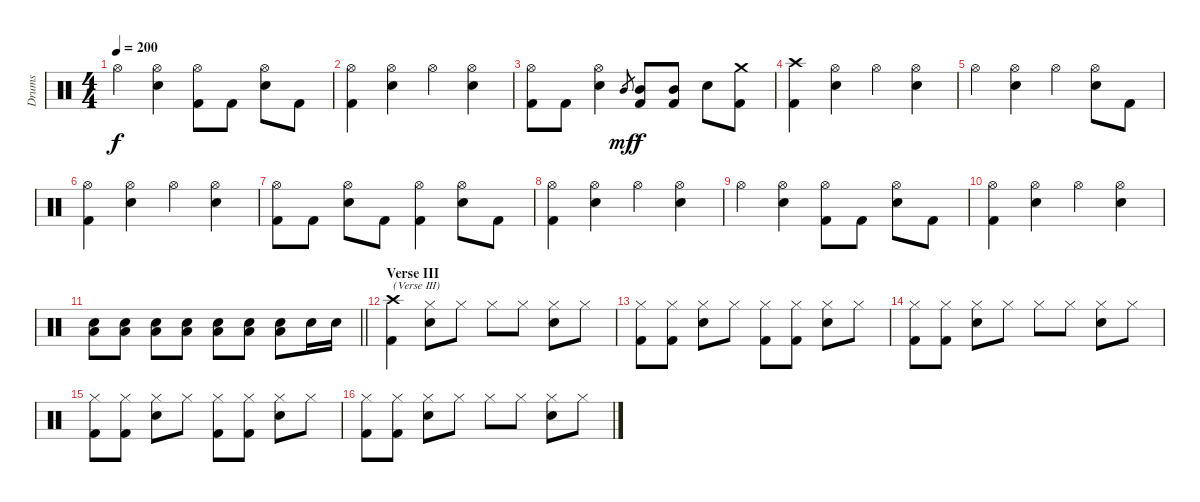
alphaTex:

\track ("Drums" "Drums") {instrument percussion}
\staff {score}
\articulation defaults
\ts (4 4)
\tempo 200
\clef neutral
\ks c "Hi-Hat (open)".4{dy f}
("Hi-Hat (open)" "Electric Snare (hit)").4 ("Hi-Hat (open)" "Kick (hit) 2").8 "Kick (hit) 2".8 ("Hi-Hat (open)" "Electric Snare (hit)").8 "Kick (hit) 2".8 |
("Hi-Hat (open)" "Kick (hit) 2").4 ("Hi-Hat (open)" "Electric Snare (hit)").4 "Hi-Hat (open)".4 ("Hi-Hat (open)" "Electric Snare (hit)").4 |
("Hi-Hat (open)" "Kick (hit) 2").8 "Kick (hit) 2".8 ("Hi-Hat (open)" "Electric Snare (hit)").4 "Mid Tom (hit)".8{gr dy mf} ("Mid Tom (hit)" "Kick (hit) 2").8{dy f} ("Mid Tom (hit)" "Kick (hit) 2").8 "Electric Snare (hit)".8 ("Crash medium (hit)" "Kick (hit) 2").8 |
("Crash high (hit)" "Kick (hit) 2").4 ("Hi-Hat (open)" "Electric Snare (hit)").4 "Hi-Hat (open)".4 ("Hi-Hat (open)" "Electric Snare (hit)").4 |
"Hi-Hat (open)".4 ("Hi-Hat (open)" "Electric Snare (hit)").4 "Hi-Hat (open)".4 ("Hi-Hat (open)" "Electric Snare (hit)").8 "Kick (hit) 2".8 |
("Hi-Hat (open)" "Kick (hit) 2").4 ("Hi-Hat (open)" "Electric Snare (hit)").4 "Hi-Hat (open)".4 ("Hi-Hat (open)" "Electric Snare (hit)").4 |
("Hi-Hat (open)" "Kick (hit) 2").8 "Kick (hit) 2".8 ("Hi-Hat (open)" "Electric Snare (hit)").8 "Kick (hit) 2".8 ("Hi-Hat (open)" "Kick (hit) 2").4 ("Hi-Hat (open)" "Electric Snare (hit)").8 "Kick (hit) 2".8 |
("Hi-Hat (open)" "Kick (hit) 2").4 ("Hi-Hat (open)" "Electric Snare (hit)").4 "Hi-Hat (open)".4 ("Hi-Hat (open)" "Electric Snare (hit)").4 |
"Hi-Hat (open)".4 ("Hi-Hat (open)" "Electric Snare (hit)").4 ("Hi-Hat (open)" "Kick (hit) 2").8 "Kick (hit) 2".8 ("Hi-Hat (open)" "Electric Snare (hit)").8 "Kick (hit) 2".8 |
("Hi-Hat (open)" "Kick (hit) 2").4 ("Hi-Hat (open)" "Electric Snare (hit)").4 "Hi-Hat (open)".4 ("Hi-Hat (open)" "Electric Snare (hit)").4 |
\barLineRight lightlight
("Electric Snare (hit)" "Low Floor Tom (hit)").8 ("Electric Snare (hit)" "Low Floor Tom (hit)").8 ("Electric Snare (hit)" "Low Floor Tom (hit)").8 ("Electric Snare (hit)" "Low Floor Tom (hit)").8 ("Electric Snare (hit)" "Low Floor Tom (hit)").8 ("Electric Snare (hit)" "Low Floor Tom (hit)").8 ("Electric Snare (hit)" "Low Floor Tom (hit)").8 "Electric Snare (hit)".16 "Electric Snare (hit)".16 |
\section ("" "Verse III")
("Crash high (hit)" "Kick (hit) 2").4{txt "(Verse III)"} ("Hi-Hat (closed)" "Electric Snare (hit)").8 "Hi-Hat (closed)".8 "Hi-Hat (closed)".8 "Hi-Hat (closed)".8 ("Hi-Hat (closed)" "Electric Snare (hit)").8 "Hi-Hat (closed)".8 |
("Hi-Hat (closed)" "Kick (hit) 2").8 ("Hi-Hat (closed)" "Kick (hit) 2").8 ("Hi-Hat (closed)" "Electric Snare (hit)").8 "Hi-Hat (closed)".8 ("Hi-Hat (closed)" "Kick (hit) 2").8 ("Hi-Hat (closed)" "Kick (hit) 2").8 ("Hi-Hat (closed)" "Electric Snare (hit)").8 "Hi-Hat (closed)".8 |
("Hi-Hat (closed)" "Kick (hit) 2").8 ("Hi-Hat (closed)" "Kick (hit) 2").8 ("Hi-Hat (closed)" "Electric Snare (hit)").8 "Hi-Hat (closed)".8 "Hi-Hat (closed)".8 "Hi-Hat (closed)".8 ("Hi-Hat (closed)" "Electric Snare (hit)").8 "Hi-Hat (closed)".8 |
("Hi-Hat (closed)" "Kick (hit) 2").8 ("Hi-Hat (closed)" "Kick (hit) 2").8 ("Hi-Hat (closed)" "Electric Snare (hit)").8 "Hi-Hat (closed)".8 ("Hi-Hat (closed)" "Kick (hit) 2").8 ("Hi-Hat (closed)" "Kick (hit) 2").8 ("Hi-Hat (closed)" "Electric Snare (hit)").8 "Hi-Hat (closed)".8 |
("Hi-Hat (closed)" "Kick (hit) 2").8 ("Hi-Hat (closed)" "Kick (hit) 2").8 ("Hi-Hat (closed)" "Electric Snare (hit)").8 "Hi-Hat (closed)".8 "Hi-Hat (closed)".8 "Hi-Hat (closed)".8 ("Hi-Hat (closed)" "Electric Snare (hit)").8 "Hi-Hat (closed)".8
